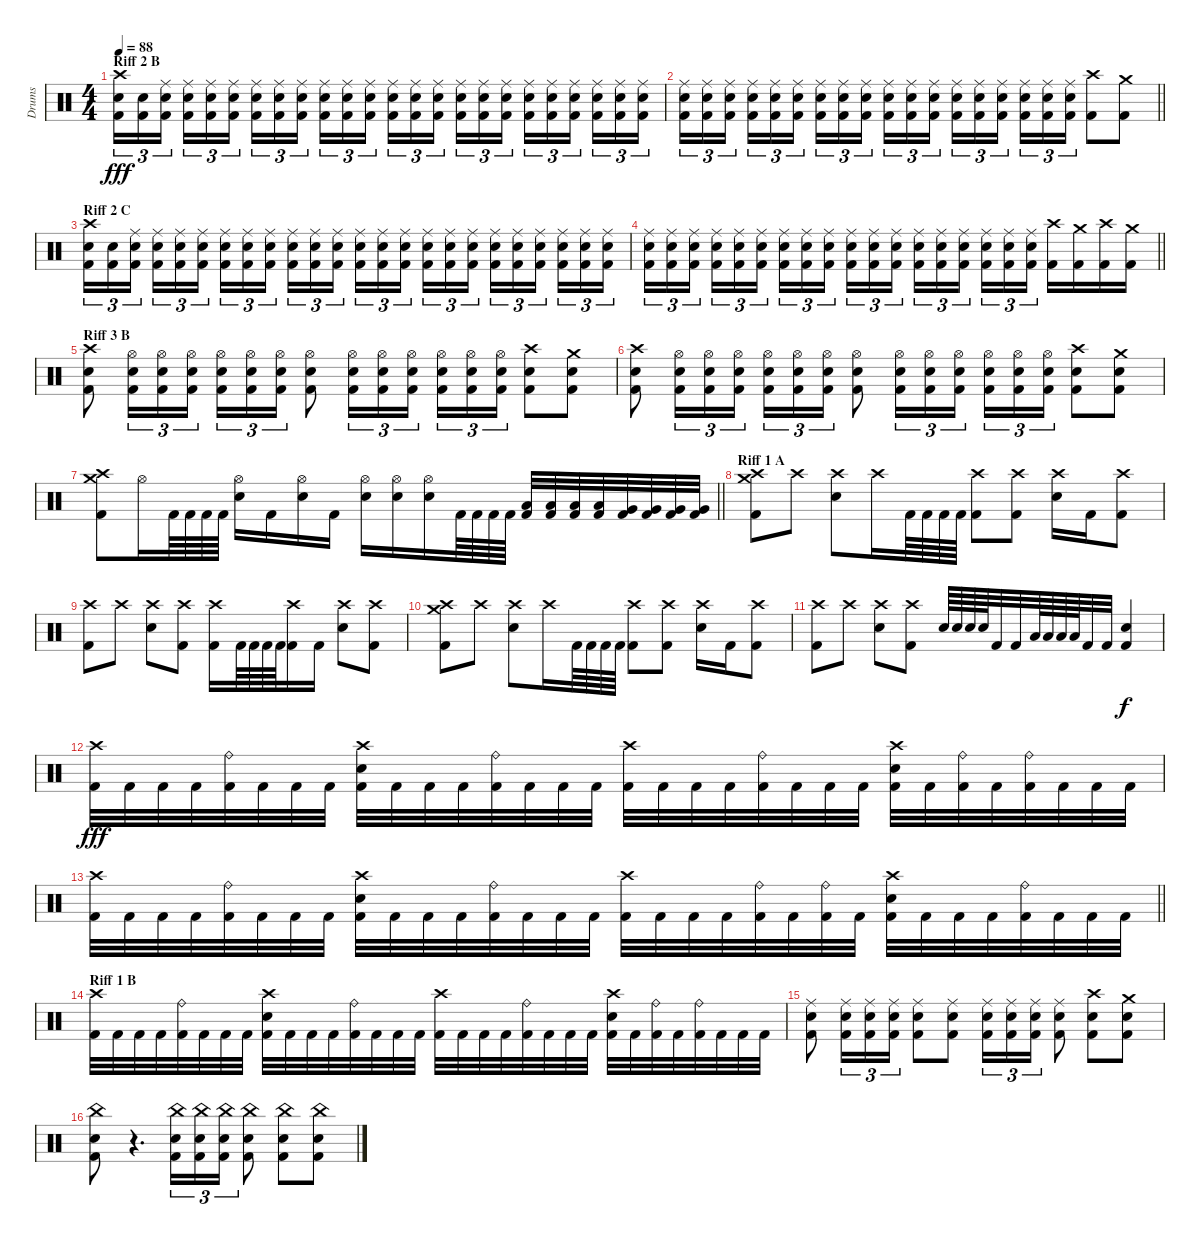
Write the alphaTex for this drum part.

\track ("Drums" "Drums") {instrument percussion}
\staff {score}
\articulation defaults
\ts (4 4)
\section ("" "Riff 2 B")
\tempo 88
\clef neutral
\ks c
("Crash high (hit)" "Electric Snare (hit)" "Kick (hit) 2").16{tu (3 2) dy fff} ("Electric Snare (hit)" "Kick (hit) 2").16{tu (3 2)} ("Ride (middle)" "Electric Snare (hit)" "Kick (hit) 2").16{tu (3 2) beam splitsecondary} ("Ride (middle)" "Electric Snare (hit)" "Kick (hit) 2").16{tu (3 2)} ("Ride (middle)" "Electric Snare (hit)" "Kick (hit) 2").16{tu (3 2)} ("Ride (middle)" "Electric Snare (hit)" "Kick (hit) 2").16{tu (3 2)} ("Ride (middle)" "Electric Snare (hit)" "Kick (hit) 2").16{tu (3 2)} ("Ride (middle)" "Electric Snare (hit)" "Kick (hit) 2").16{tu (3 2)} ("Ride (middle)" "Electric Snare (hit)" "Kick (hit) 2").16{tu (3 2) beam splitsecondary} ("Ride (middle)" "Electric Snare (hit)" "Kick (hit) 2").16{tu (3 2)} ("Ride (middle)" "Electric Snare (hit)" "Kick (hit) 2").16{tu (3 2)} ("Ride (middle)" "Electric Snare (hit)" "Kick (hit) 2").16{tu (3 2)} ("Ride (middle)" "Electric Snare (hit)" "Kick (hit) 2").16{tu (3 2)} ("Ride (middle)" "Electric Snare (hit)" "Kick (hit) 2").16{tu (3 2)} ("Ride (middle)" "Electric Snare (hit)" "Kick (hit) 2").16{tu (3 2) beam splitsecondary} ("Ride (middle)" "Electric Snare (hit)" "Kick (hit) 2").16{tu (3 2)} ("Ride (middle)" "Electric Snare (hit)" "Kick (hit) 2").16{tu (3 2)} ("Ride (middle)" "Electric Snare (hit)" "Kick (hit) 2").16{tu (3 2)} ("Ride (middle)" "Electric Snare (hit)" "Kick (hit) 2").16{tu (3 2)} ("Ride (middle)" "Electric Snare (hit)" "Kick (hit) 2").16{tu (3 2)} ("Ride (middle)" "Electric Snare (hit)" "Kick (hit) 2").16{tu (3 2) beam splitsecondary} ("Ride (middle)" "Electric Snare (hit)" "Kick (hit) 2").16{tu (3 2)} ("Ride (middle)" "Electric Snare (hit)" "Kick (hit) 2").16{tu (3 2)} ("Ride (middle)" "Electric Snare (hit)" "Kick (hit) 2").16{tu (3 2)} |
\barLineRight lightlight
("Ride (middle)" "Electric Snare (hit)" "Kick (hit) 2").16{tu (3 2)} ("Ride (middle)" "Electric Snare (hit)" "Kick (hit) 2").16{tu (3 2)} ("Ride (middle)" "Electric Snare (hit)" "Kick (hit) 2").16{tu (3 2) beam splitsecondary} ("Ride (middle)" "Electric Snare (hit)" "Kick (hit) 2").16{tu (3 2)} ("Ride (middle)" "Electric Snare (hit)" "Kick (hit) 2").16{tu (3 2)} ("Ride (middle)" "Electric Snare (hit)" "Kick (hit) 2").16{tu (3 2)} ("Ride (middle)" "Electric Snare (hit)" "Kick (hit) 2").16{tu (3 2)} ("Ride (middle)" "Electric Snare (hit)" "Kick (hit) 2").16{tu (3 2)} ("Ride (middle)" "Electric Snare (hit)" "Kick (hit) 2").16{tu (3 2) beam splitsecondary} ("Ride (middle)" "Electric Snare (hit)" "Kick (hit) 2").16{tu (3 2)} ("Ride (middle)" "Electric Snare (hit)" "Kick (hit) 2").16{tu (3 2)} ("Ride (middle)" "Electric Snare (hit)" "Kick (hit) 2").16{tu (3 2)} ("Ride (middle)" "Electric Snare (hit)" "Kick (hit) 2").16{tu (3 2)} ("Ride (middle)" "Electric Snare (hit)" "Kick (hit) 2").16{tu (3 2)} ("Ride (middle)" "Electric Snare (hit)" "Kick (hit) 2").16{tu (3 2) beam splitsecondary} ("Ride (middle)" "Electric Snare (hit)" "Kick (hit) 2").16{tu (3 2)} ("Ride (middle)" "Electric Snare (hit)" "Kick (hit) 2").16{tu (3 2)} ("Ride (middle)" "Electric Snare (hit)" "Kick (hit) 2").16{tu (3 2)} ("Crash high (hit)" "Kick (hit) 2").8 ("Crash medium (hit)" "Kick (hit) 2").8 |
\section ("" "Riff 2 C")
("Crash high (hit)" "Electric Snare (hit)" "Kick (hit) 2").16{tu (3 2)} ("Electric Snare (hit)" "Kick (hit) 2").16{tu (3 2)} ("Ride (middle)" "Electric Snare (hit)" "Kick (hit) 2").16{tu (3 2) beam splitsecondary} ("Ride (middle)" "Electric Snare (hit)" "Kick (hit) 2").16{tu (3 2)} ("Ride (middle)" "Electric Snare (hit)" "Kick (hit) 2").16{tu (3 2)} ("Ride (middle)" "Electric Snare (hit)" "Kick (hit) 2").16{tu (3 2)} ("Ride (middle)" "Electric Snare (hit)" "Kick (hit) 2").16{tu (3 2)} ("Ride (middle)" "Electric Snare (hit)" "Kick (hit) 2").16{tu (3 2)} ("Ride (middle)" "Electric Snare (hit)" "Kick (hit) 2").16{tu (3 2) beam splitsecondary} ("Ride (middle)" "Electric Snare (hit)" "Kick (hit) 2").16{tu (3 2)} ("Ride (middle)" "Electric Snare (hit)" "Kick (hit) 2").16{tu (3 2)} ("Ride (middle)" "Electric Snare (hit)" "Kick (hit) 2").16{tu (3 2)} ("Ride (middle)" "Electric Snare (hit)" "Kick (hit) 2").16{tu (3 2)} ("Ride (middle)" "Electric Snare (hit)" "Kick (hit) 2").16{tu (3 2)} ("Ride (middle)" "Electric Snare (hit)" "Kick (hit) 2").16{tu (3 2) beam splitsecondary} ("Ride (middle)" "Electric Snare (hit)" "Kick (hit) 2").16{tu (3 2)} ("Ride (middle)" "Electric Snare (hit)" "Kick (hit) 2").16{tu (3 2)} ("Ride (middle)" "Electric Snare (hit)" "Kick (hit) 2").16{tu (3 2)} ("Ride (middle)" "Electric Snare (hit)" "Kick (hit) 2").16{tu (3 2)} ("Ride (middle)" "Electric Snare (hit)" "Kick (hit) 2").16{tu (3 2)} ("Ride (middle)" "Electric Snare (hit)" "Kick (hit) 2").16{tu (3 2) beam splitsecondary} ("Ride (middle)" "Electric Snare (hit)" "Kick (hit) 2").16{tu (3 2)} ("Ride (middle)" "Electric Snare (hit)" "Kick (hit) 2").16{tu (3 2)} ("Ride (middle)" "Electric Snare (hit)" "Kick (hit) 2").16{tu (3 2)} |
\barLineRight lightlight
("Ride (middle)" "Electric Snare (hit)" "Kick (hit) 2").16{tu (3 2)} ("Ride (middle)" "Electric Snare (hit)" "Kick (hit) 2").16{tu (3 2)} ("Ride (middle)" "Electric Snare (hit)" "Kick (hit) 2").16{tu (3 2) beam splitsecondary} ("Ride (middle)" "Electric Snare (hit)" "Kick (hit) 2").16{tu (3 2)} ("Ride (middle)" "Electric Snare (hit)" "Kick (hit) 2").16{tu (3 2)} ("Ride (middle)" "Electric Snare (hit)" "Kick (hit) 2").16{tu (3 2)} ("Ride (middle)" "Electric Snare (hit)" "Kick (hit) 2").16{tu (3 2)} ("Ride (middle)" "Electric Snare (hit)" "Kick (hit) 2").16{tu (3 2)} ("Ride (middle)" "Electric Snare (hit)" "Kick (hit) 2").16{tu (3 2) beam splitsecondary} ("Ride (middle)" "Electric Snare (hit)" "Kick (hit) 2").16{tu (3 2)} ("Ride (middle)" "Electric Snare (hit)" "Kick (hit) 2").16{tu (3 2)} ("Ride (middle)" "Electric Snare (hit)" "Kick (hit) 2").16{tu (3 2)} ("Ride (middle)" "Electric Snare (hit)" "Kick (hit) 2").16{tu (3 2)} ("Ride (middle)" "Electric Snare (hit)" "Kick (hit) 2").16{tu (3 2)} ("Ride (middle)" "Electric Snare (hit)" "Kick (hit) 2").16{tu (3 2) beam splitsecondary} ("Ride (middle)" "Electric Snare (hit)" "Kick (hit) 2").16{tu (3 2)} ("Ride (middle)" "Electric Snare (hit)" "Kick (hit) 2").16{tu (3 2)} ("Ride (middle)" "Electric Snare (hit)" "Kick (hit) 2").16{tu (3 2)} ("Crash high (hit)" "Kick (hit) 2").16 ("Crash medium (hit)" "Kick (hit) 2").16 ("Crash high (hit)" "Kick (hit) 2").16 ("Crash medium (hit)" "Kick (hit) 2").16 |
\section ("" "Riff 3 B")
("Crash high (hit)" "Electric Snare (hit)" "Kick (hit) 2").8 ("Hi-Hat (open)" "Electric Snare (hit)" "Kick (hit) 2").16{tu (3 2)} ("Hi-Hat (open)" "Electric Snare (hit)" "Kick (hit) 2").16{tu (3 2)} ("Hi-Hat (open)" "Electric Snare (hit)" "Kick (hit) 2").16{tu (3 2)} ("Hi-Hat (open)" "Electric Snare (hit)" "Kick (hit) 2").16{tu (3 2)} ("Hi-Hat (open)" "Electric Snare (hit)" "Kick (hit) 2").16{tu (3 2)} ("Hi-Hat (open)" "Electric Snare (hit)" "Kick (hit) 2").16{tu (3 2)} ("Hi-Hat (open)" "Electric Snare (hit)" "Kick (hit) 2").8 ("Hi-Hat (open)" "Electric Snare (hit)" "Kick (hit) 2").16{tu (3 2)} ("Hi-Hat (open)" "Electric Snare (hit)" "Kick (hit) 2").16{tu (3 2)} ("Hi-Hat (open)" "Electric Snare (hit)" "Kick (hit) 2").16{tu (3 2) beam splitsecondary} ("Hi-Hat (open)" "Electric Snare (hit)" "Kick (hit) 2").16{tu (3 2)} ("Hi-Hat (open)" "Electric Snare (hit)" "Kick (hit) 2").16{tu (3 2)} ("Hi-Hat (open)" "Electric Snare (hit)" "Kick (hit) 2").16{tu (3 2)} ("Crash high (hit)" "Electric Snare (hit)" "Kick (hit) 2").8 ("Crash medium (hit)" "Electric Snare (hit)" "Kick (hit) 2").8 |
("Crash high (hit)" "Electric Snare (hit)" "Kick (hit) 2").8 ("Hi-Hat (open)" "Electric Snare (hit)" "Kick (hit) 2").16{tu (3 2)} ("Hi-Hat (open)" "Electric Snare (hit)" "Kick (hit) 2").16{tu (3 2)} ("Hi-Hat (open)" "Electric Snare (hit)" "Kick (hit) 2").16{tu (3 2)} ("Hi-Hat (open)" "Electric Snare (hit)" "Kick (hit) 2").16{tu (3 2)} ("Hi-Hat (open)" "Electric Snare (hit)" "Kick (hit) 2").16{tu (3 2)} ("Hi-Hat (open)" "Electric Snare (hit)" "Kick (hit) 2").16{tu (3 2)} ("Hi-Hat (open)" "Electric Snare (hit)" "Kick (hit) 2").8 ("Hi-Hat (open)" "Electric Snare (hit)" "Kick (hit) 2").16{tu (3 2)} ("Hi-Hat (open)" "Electric Snare (hit)" "Kick (hit) 2").16{tu (3 2)} ("Hi-Hat (open)" "Electric Snare (hit)" "Kick (hit) 2").16{tu (3 2) beam splitsecondary} ("Hi-Hat (open)" "Electric Snare (hit)" "Kick (hit) 2").16{tu (3 2)} ("Hi-Hat (open)" "Electric Snare (hit)" "Kick (hit) 2").16{tu (3 2)} ("Hi-Hat (open)" "Electric Snare (hit)" "Kick (hit) 2").16{tu (3 2)} ("Crash high (hit)" "Electric Snare (hit)" "Kick (hit) 2").8 ("Crash medium (hit)" "Electric Snare (hit)" "Kick (hit) 2").8 |
\barLineRight lightlight
("Crash medium (hit)" "Crash high (hit)" "Kick (hit) 2").8 "Hi-Hat (open)".16 "Kick (hit) 2".64 "Kick (hit) 2".64 "Kick (hit) 2".64 "Kick (hit) 2".64 ("Hi-Hat (open)" "Electric Snare (hit)").16 "Kick (hit) 2".16 ("Hi-Hat (open)" "Electric Snare (hit)").16 "Kick (hit) 2".16 ("Hi-Hat (open)" "Electric Snare (hit)").16 ("Hi-Hat (open)" "Electric Snare (hit)").16 ("Hi-Hat (open)" "Electric Snare (hit)").16 "Kick (hit) 2".64 "Kick (hit) 2".64 "Kick (hit) 2".64 "Kick (hit) 2".64 ("Low Tom (hit)" "Kick (hit) 2").32 ("Low Tom (hit)" "Kick (hit) 2").32 ("Low Tom (hit)" "Kick (hit) 2").32 ("Low Tom (hit)" "Kick (hit) 2").32 ("Very Low Tom (hit)" "Kick (hit) 2").32 ("Very Low Tom (hit)" "Kick (hit) 2").32 ("Very Low Tom (hit)" "Kick (hit) 2").32 ("Very Low Tom (hit)" "Kick (hit) 2").32 |
\section ("" "Riff 1 A")
("Crash medium (hit)" "Crash high (hit)" "Kick (hit) 2").8 "Crash high (hit)".8 ("Crash high (hit)" "Electric Snare (hit)").8 "Crash high (hit)".16 "Kick (hit) 2".64 "Kick (hit) 2".64 "Kick (hit) 2".64 "Kick (hit) 2".64 ("Crash high (hit)" "Kick (hit) 2").8 ("Crash high (hit)" "Kick (hit) 2").8 ("Crash high (hit)" "Electric Snare (hit)").16 "Kick (hit) 2".16 ("Crash high (hit)" "Kick (hit) 2").8 |
("Crash high (hit)" "Kick (hit) 2").8 "Crash high (hit)".8 ("Crash high (hit)" "Electric Snare (hit)").8 ("Crash high (hit)" "Kick (hit) 2").8 ("Crash high (hit)" "Kick (hit) 2").16 "Kick (hit) 2".64 "Kick (hit) 2".64 "Kick (hit) 2".64 "Kick (hit) 2".64 ("Crash high (hit)" "Kick (hit) 2").16 "Kick (hit) 2".16 ("Crash high (hit)" "Electric Snare (hit)").8 ("Crash high (hit)" "Kick (hit) 2").8 |
("Crash medium (hit)" "Crash high (hit)" "Kick (hit) 2").8 "Crash high (hit)".8 ("Crash high (hit)" "Electric Snare (hit)").8 "Crash high (hit)".16 "Kick (hit) 2".64 "Kick (hit) 2".64 "Kick (hit) 2".64 "Kick (hit) 2".64 ("Crash high (hit)" "Kick (hit) 2").8 ("Crash high (hit)" "Kick (hit) 2").8 ("Crash high (hit)" "Electric Snare (hit)").16 "Kick (hit) 2".16 ("Crash high (hit)" "Kick (hit) 2").8 |
("Crash high (hit)" "Kick (hit) 2").8 "Crash high (hit)".8 ("Crash high (hit)" "Electric Snare (hit)").8 ("Crash high (hit)" "Kick (hit) 2").8 "Electric Snare (hit)".64 "Electric Snare (hit)".64 "Electric Snare (hit)".64 "Electric Snare (hit)".64 "Kick (hit) 2".32 "Kick (hit) 2".32 "Low Tom (hit)".64 "Low Tom (hit)".64 "Low Tom (hit)".64 "Low Tom (hit)".64 "Kick (hit) 2".32 "Kick (hit) 2".32 ("Electric Snare (hit)" "Kick (hit) 2").4{dy f} |
("Crash high (hit)" "Kick (hit) 2").32{dy fff} "Kick (hit) 2".32 "Kick (hit) 2".32 "Kick (hit) 2".32 ("Ride (bell)" "Kick (hit) 2").32 "Kick (hit) 2".32 "Kick (hit) 2".32 "Kick (hit) 2".32 ("Crash high (hit)" "Electric Snare (hit)" "Kick (hit) 2").32 "Kick (hit) 2".32 "Kick (hit) 2".32 "Kick (hit) 2".32 ("Ride (bell)" "Kick (hit) 2").32 "Kick (hit) 2".32 "Kick (hit) 2".32 "Kick (hit) 2".32 ("Crash high (hit)" "Kick (hit) 2").32 "Kick (hit) 2".32 "Kick (hit) 2".32 "Kick (hit) 2".32 ("Ride (bell)" "Kick (hit) 2").32 "Kick (hit) 2".32 "Kick (hit) 2".32 "Kick (hit) 2".32 ("Crash high (hit)" "Electric Snare (hit)" "Kick (hit) 2").32 "Kick (hit) 2".32 ("Ride (bell)" "Kick (hit) 2").32 "Kick (hit) 2".32 ("Ride (bell)" "Kick (hit) 2").32 "Kick (hit) 2".32 "Kick (hit) 2".32 "Kick (hit) 2".32 |
\barLineRight lightlight
("Crash high (hit)" "Kick (hit) 2").32 "Kick (hit) 2".32 "Kick (hit) 2".32 "Kick (hit) 2".32 ("Ride (bell)" "Kick (hit) 2").32 "Kick (hit) 2".32 "Kick (hit) 2".32 "Kick (hit) 2".32 ("Crash high (hit)" "Electric Snare (hit)" "Kick (hit) 2").32 "Kick (hit) 2".32 "Kick (hit) 2".32 "Kick (hit) 2".32 ("Ride (bell)" "Kick (hit) 2").32 "Kick (hit) 2".32 "Kick (hit) 2".32 "Kick (hit) 2".32 ("Crash high (hit)" "Kick (hit) 2").32 "Kick (hit) 2".32 "Kick (hit) 2".32 "Kick (hit) 2".32 ("Ride (bell)" "Kick (hit) 2").32 "Kick (hit) 2".32 ("Ride (bell)" "Kick (hit) 2").32 "Kick (hit) 2".32 ("Crash high (hit)" "Electric Snare (hit)" "Kick (hit) 2").32 "Kick (hit) 2".32 "Kick (hit) 2".32 "Kick (hit) 2".32 ("Ride (bell)" "Kick (hit) 2").32 "Kick (hit) 2".32 "Kick (hit) 2".32 "Kick (hit) 2".32 |
\section ("" "Riff 1 B")
("Crash high (hit)" "Kick (hit) 2").32 "Kick (hit) 2".32 "Kick (hit) 2".32 "Kick (hit) 2".32 ("Ride (bell)" "Kick (hit) 2").32 "Kick (hit) 2".32 "Kick (hit) 2".32 "Kick (hit) 2".32 ("Crash high (hit)" "Electric Snare (hit)" "Kick (hit) 2").32 "Kick (hit) 2".32 "Kick (hit) 2".32 "Kick (hit) 2".32 ("Ride (bell)" "Kick (hit) 2").32 "Kick (hit) 2".32 "Kick (hit) 2".32 "Kick (hit) 2".32 ("Crash high (hit)" "Kick (hit) 2").32 "Kick (hit) 2".32 "Kick (hit) 2".32 "Kick (hit) 2".32 ("Ride (bell)" "Kick (hit) 2").32 "Kick (hit) 2".32 "Kick (hit) 2".32 "Kick (hit) 2".32 ("Crash high (hit)" "Electric Snare (hit)" "Kick (hit) 2").32 "Kick (hit) 2".32 ("Ride (bell)" "Kick (hit) 2").32 "Kick (hit) 2".32 ("Ride (bell)" "Kick (hit) 2").32 "Kick (hit) 2".32 "Kick (hit) 2".32 "Kick (hit) 2".32 |
("Ride (middle)" "Electric Snare (hit)" "Kick (hit) 2").8 ("Ride (middle)" "Electric Snare (hit)" "Kick (hit) 2").16{tu (3 2)} ("Ride (middle)" "Electric Snare (hit)" "Kick (hit) 2").16{tu (3 2)} ("Ride (middle)" "Electric Snare (hit)" "Kick (hit) 2").16{tu (3 2)} ("Ride (middle)" "Electric Snare (hit)" "Kick (hit) 2").8 ("Ride (middle)" "Electric Snare (hit)" "Kick (hit) 2").8 ("Ride (middle)" "Electric Snare (hit)" "Kick (hit) 2").16{tu (3 2)} ("Ride (middle)" "Electric Snare (hit)" "Kick (hit) 2").16{tu (3 2)} ("Ride (middle)" "Electric Snare (hit)" "Kick (hit) 2").16{tu (3 2)} ("Ride (middle)" "Electric Snare (hit)" "Kick (hit) 2").8 ("Crash high (hit)" "Electric Snare (hit)" "Kick (hit) 2").8 ("Crash medium (hit)" "Electric Snare (hit)" "Kick (hit) 2").8 |
("China (hit)" "Electric Snare (hit)" "Kick (hit) 2").8 r.4{d} ("China (hit)" "Electric Snare (hit)" "Kick (hit) 2").16{tu (3 2)} ("China (hit)" "Electric Snare (hit)" "Kick (hit) 2").16{tu (3 2)} ("China (hit)" "Electric Snare (hit)" "Kick (hit) 2").16{tu (3 2)} ("China (hit)" "Electric Snare (hit)" "Kick (hit) 2").8 ("China (hit)" "Electric Snare (hit)" "Kick (hit) 2").8 ("China (hit)" "Electric Snare (hit)" "Kick (hit) 2").8
